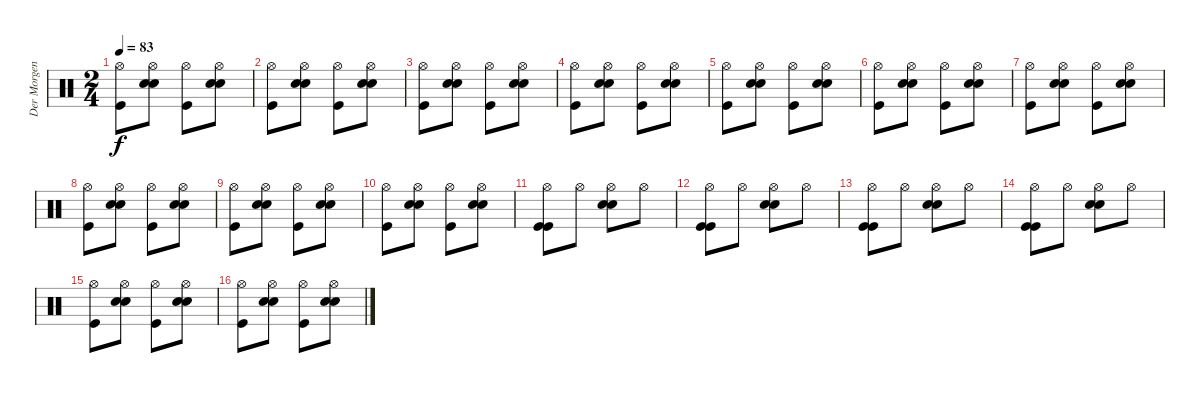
\track ("Der Morgenstern" "Der Morgen") {instrument percussion}
\staff {score}
\articulation defaults
\ts (2 4)
\tempo 83
\clef neutral
\ks c
("Hi-Hat (open)" "Kick (hit)").8{dy f} ("Hi-Hat (open)" "Electric Snare (hit)" "Electric Snare (hit)").8 ("Hi-Hat (open)" "Kick (hit)").8 ("Hi-Hat (open)" "Electric Snare (hit)" "Electric Snare (hit)").8 |
("Hi-Hat (open)" "Kick (hit)").8 ("Hi-Hat (open)" "Electric Snare (hit)" "Electric Snare (hit)").8 ("Hi-Hat (open)" "Kick (hit)").8 ("Hi-Hat (open)" "Electric Snare (hit)" "Electric Snare (hit)").8 |
("Hi-Hat (open)" "Kick (hit)").8 ("Hi-Hat (open)" "Electric Snare (hit)" "Electric Snare (hit)").8 ("Hi-Hat (open)" "Kick (hit)").8 ("Hi-Hat (open)" "Electric Snare (hit)" "Electric Snare (hit)").8 |
("Hi-Hat (open)" "Kick (hit)").8 ("Hi-Hat (open)" "Electric Snare (hit)" "Electric Snare (hit)").8 ("Hi-Hat (open)" "Kick (hit)").8 ("Hi-Hat (open)" "Electric Snare (hit)" "Electric Snare (hit)").8 |
("Hi-Hat (open)" "Kick (hit)").8 ("Hi-Hat (open)" "Electric Snare (hit)" "Electric Snare (hit)").8 ("Hi-Hat (open)" "Kick (hit)").8 ("Hi-Hat (open)" "Electric Snare (hit)" "Electric Snare (hit)").8 |
("Hi-Hat (open)" "Kick (hit)").8 ("Hi-Hat (open)" "Electric Snare (hit)" "Electric Snare (hit)").8 ("Hi-Hat (open)" "Kick (hit)").8 ("Hi-Hat (open)" "Electric Snare (hit)" "Electric Snare (hit)").8 |
("Hi-Hat (open)" "Kick (hit)").8 ("Hi-Hat (open)" "Electric Snare (hit)" "Electric Snare (hit)").8 ("Hi-Hat (open)" "Kick (hit)").8 ("Hi-Hat (open)" "Electric Snare (hit)" "Electric Snare (hit)").8 |
("Hi-Hat (open)" "Kick (hit)").8 ("Hi-Hat (open)" "Electric Snare (hit)" "Electric Snare (hit)").8 ("Hi-Hat (open)" "Kick (hit)").8 ("Hi-Hat (open)" "Electric Snare (hit)" "Electric Snare (hit)").8 |
("Hi-Hat (open)" "Kick (hit)").8 ("Hi-Hat (open)" "Electric Snare (hit)" "Electric Snare (hit)").8 ("Hi-Hat (open)" "Kick (hit)").8 ("Hi-Hat (open)" "Electric Snare (hit)" "Electric Snare (hit)").8 |
("Hi-Hat (open)" "Kick (hit)").8 ("Hi-Hat (open)" "Electric Snare (hit)" "Electric Snare (hit)").8 ("Hi-Hat (open)" "Kick (hit)").8 ("Hi-Hat (open)" "Electric Snare (hit)" "Electric Snare (hit)").8 |
("Hi-Hat (open)" "Kick (hit)" "Kick (hit)").8 "Hi-Hat (open)".8 ("Hi-Hat (open)" "Electric Snare (hit)" "Electric Snare (hit)").8 "Hi-Hat (open)".8 |
("Hi-Hat (open)" "Kick (hit)" "Kick (hit)").8 "Hi-Hat (open)".8 ("Hi-Hat (open)" "Electric Snare (hit)" "Electric Snare (hit)").8 "Hi-Hat (open)".8 |
("Hi-Hat (open)" "Kick (hit)" "Kick (hit)").8 "Hi-Hat (open)".8 ("Hi-Hat (open)" "Electric Snare (hit)" "Electric Snare (hit)").8 "Hi-Hat (open)".8 |
("Hi-Hat (open)" "Kick (hit)" "Kick (hit)").8 "Hi-Hat (open)".8 ("Hi-Hat (open)" "Electric Snare (hit)" "Electric Snare (hit)").8 "Hi-Hat (open)".8 |
("Hi-Hat (open)" "Kick (hit)").8 ("Hi-Hat (open)" "Electric Snare (hit)" "Electric Snare (hit)").8 ("Hi-Hat (open)" "Kick (hit)").8 ("Hi-Hat (open)" "Electric Snare (hit)" "Electric Snare (hit)").8 |
("Hi-Hat (open)" "Kick (hit)").8 ("Hi-Hat (open)" "Electric Snare (hit)" "Electric Snare (hit)").8 ("Hi-Hat (open)" "Kick (hit)").8 ("Hi-Hat (open)" "Electric Snare (hit)" "Electric Snare (hit)").8
